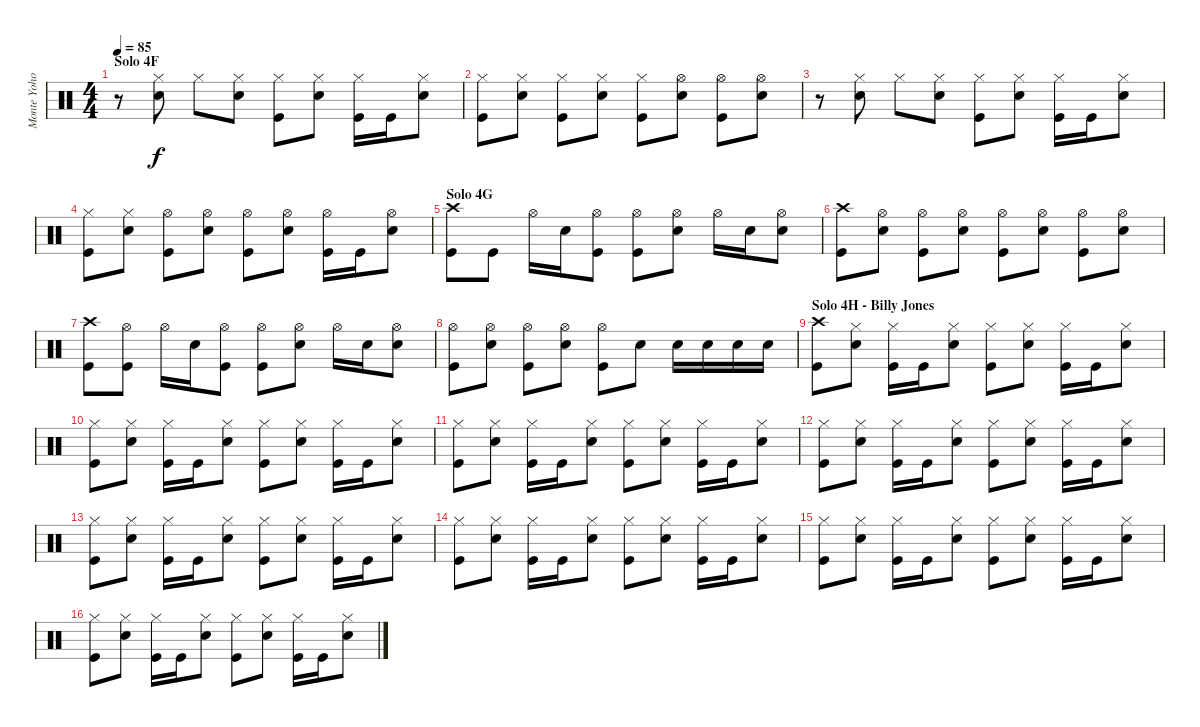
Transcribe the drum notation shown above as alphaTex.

\track ("Monte Yoho - Drums" "Monte Yoho") {instrument percussion}
\staff {score}
\articulation defaults
\ts (4 4)
\section ("" "Solo 4F")
\tempo 85
\clef neutral
\ks c
r.8{dy f} ("Hi-Hat (closed)" "Snare (hit) 2").8 "Hi-Hat (closed)".8 ("Hi-Hat (closed)" "Snare (hit) 2").8 ("Hi-Hat (closed)" "Kick (hit)").8 ("Hi-Hat (closed)" "Snare (hit) 2").8 ("Hi-Hat (closed)" "Kick (hit)").16 "Kick (hit)".16 ("Hi-Hat (closed)" "Snare (hit) 2").8 |
("Hi-Hat (closed)" "Kick (hit)").8 ("Hi-Hat (closed)" "Snare (hit) 2").8 ("Hi-Hat (closed)" "Kick (hit)").8 ("Hi-Hat (closed)" "Snare (hit) 2").8 ("Hi-Hat (closed)" "Kick (hit)").8 ("Hi-Hat (open)" "Snare (hit) 2").8 ("Hi-Hat (open)" "Kick (hit)").8 ("Hi-Hat (open)" "Snare (hit) 2").8 |
r.8 ("Hi-Hat (closed)" "Snare (hit) 2").8 "Hi-Hat (closed)".8 ("Hi-Hat (closed)" "Snare (hit) 2").8 ("Hi-Hat (closed)" "Kick (hit)").8 ("Hi-Hat (closed)" "Snare (hit) 2").8 ("Hi-Hat (closed)" "Kick (hit)").16 "Kick (hit)".16 ("Hi-Hat (closed)" "Snare (hit) 2").8 |
("Hi-Hat (closed)" "Kick (hit)").8 ("Hi-Hat (closed)" "Snare (hit) 2").8 ("Hi-Hat (open)" "Kick (hit)").8 ("Hi-Hat (open)" "Snare (hit) 2").8 ("Hi-Hat (open)" "Kick (hit)").8 ("Hi-Hat (open)" "Snare (hit) 2").8 ("Hi-Hat (open)" "Kick (hit)").16 "Kick (hit)".16 ("Hi-Hat (open)" "Snare (hit) 2").8 |
\section ("" "Solo 4G")
("Crash high (hit)" "Kick (hit)").8 "Kick (hit)".8 "Hi-Hat (open)".16 "Snare (hit) 2".16 ("Hi-Hat (open)" "Kick (hit)").8 ("Hi-Hat (open)" "Kick (hit)").8 ("Hi-Hat (open)" "Snare (hit) 2").8 "Hi-Hat (open)".16 "Snare (hit) 2".16 ("Hi-Hat (open)" "Snare (hit) 2").8 |
("Crash high (hit)" "Kick (hit)").8 ("Hi-Hat (open)" "Snare (hit) 2").8 ("Hi-Hat (open)" "Kick (hit)").8 ("Hi-Hat (open)" "Snare (hit) 2").8 ("Hi-Hat (open)" "Kick (hit)").8 ("Hi-Hat (open)" "Snare (hit) 2").8 ("Hi-Hat (open)" "Kick (hit)").8 ("Hi-Hat (open)" "Snare (hit) 2").8 |
("Crash high (hit)" "Kick (hit)").8 ("Hi-Hat (open)" "Kick (hit)").8 "Hi-Hat (open)".16 "Snare (hit) 2".16 ("Hi-Hat (open)" "Kick (hit)").8 ("Hi-Hat (open)" "Kick (hit)").8 ("Hi-Hat (open)" "Snare (hit) 2").8 "Hi-Hat (open)".16 "Snare (hit) 2".16 ("Hi-Hat (open)" "Snare (hit) 2").8 |
("Hi-Hat (open)" "Kick (hit)").8 ("Hi-Hat (open)" "Snare (hit) 2").8 ("Hi-Hat (open)" "Kick (hit)").8 ("Hi-Hat (open)" "Snare (hit) 2").8 ("Hi-Hat (open)" "Kick (hit)").8 "Snare (hit) 2".8 "Snare (hit) 2".16 "Snare (hit) 2".16 "Snare (hit) 2".16 "Snare (hit) 2".16 |
\section ("" "Solo 4H - Billy Jones")
("Crash high (hit)" "Kick (hit)").8 ("Hi-Hat (closed)" "Snare (hit) 2").8 ("Hi-Hat (closed)" "Kick (hit)").16 "Kick (hit)".16 ("Hi-Hat (closed)" "Snare (hit) 2").8 ("Hi-Hat (closed)" "Kick (hit)").8 ("Hi-Hat (closed)" "Snare (hit) 2").8 ("Hi-Hat (closed)" "Kick (hit)").16 "Kick (hit)".16 ("Hi-Hat (closed)" "Snare (hit) 2").8 |
("Hi-Hat (closed)" "Kick (hit)").8 ("Hi-Hat (closed)" "Snare (hit) 2").8 ("Hi-Hat (closed)" "Kick (hit)").16 "Kick (hit)".16 ("Hi-Hat (closed)" "Snare (hit) 2").8 ("Hi-Hat (closed)" "Kick (hit)").8 ("Hi-Hat (closed)" "Snare (hit) 2").8 ("Hi-Hat (closed)" "Kick (hit)").16 "Kick (hit)".16 ("Hi-Hat (closed)" "Snare (hit) 2").8 |
("Hi-Hat (closed)" "Kick (hit)").8 ("Hi-Hat (closed)" "Snare (hit) 2").8 ("Hi-Hat (closed)" "Kick (hit)").16 "Kick (hit)".16 ("Hi-Hat (closed)" "Snare (hit) 2").8 ("Hi-Hat (closed)" "Kick (hit)").8 ("Hi-Hat (closed)" "Snare (hit) 2").8 ("Hi-Hat (closed)" "Kick (hit)").16 "Kick (hit)".16 ("Hi-Hat (closed)" "Snare (hit) 2").8 |
("Hi-Hat (closed)" "Kick (hit)").8 ("Hi-Hat (closed)" "Snare (hit) 2").8 ("Hi-Hat (closed)" "Kick (hit)").16 "Kick (hit)".16 ("Hi-Hat (closed)" "Snare (hit) 2").8 ("Hi-Hat (closed)" "Kick (hit)").8 ("Hi-Hat (closed)" "Snare (hit) 2").8 ("Hi-Hat (closed)" "Kick (hit)").16 "Kick (hit)".16 ("Hi-Hat (closed)" "Snare (hit) 2").8 |
("Hi-Hat (closed)" "Kick (hit)").8 ("Hi-Hat (closed)" "Snare (hit) 2").8 ("Hi-Hat (closed)" "Kick (hit)").16 "Kick (hit)".16 ("Hi-Hat (closed)" "Snare (hit) 2").8 ("Hi-Hat (closed)" "Kick (hit)").8 ("Hi-Hat (closed)" "Snare (hit) 2").8 ("Hi-Hat (closed)" "Kick (hit)").16 "Kick (hit)".16 ("Hi-Hat (closed)" "Snare (hit) 2").8 |
("Hi-Hat (closed)" "Kick (hit)").8 ("Hi-Hat (closed)" "Snare (hit) 2").8 ("Hi-Hat (closed)" "Kick (hit)").16 "Kick (hit)".16 ("Hi-Hat (closed)" "Snare (hit) 2").8 ("Hi-Hat (closed)" "Kick (hit)").8 ("Hi-Hat (closed)" "Snare (hit) 2").8 ("Hi-Hat (closed)" "Kick (hit)").16 "Kick (hit)".16 ("Hi-Hat (closed)" "Snare (hit) 2").8 |
("Hi-Hat (closed)" "Kick (hit)").8 ("Hi-Hat (closed)" "Snare (hit) 2").8 ("Hi-Hat (closed)" "Kick (hit)").16 "Kick (hit)".16 ("Hi-Hat (closed)" "Snare (hit) 2").8 ("Hi-Hat (closed)" "Kick (hit)").8 ("Hi-Hat (closed)" "Snare (hit) 2").8 ("Hi-Hat (closed)" "Kick (hit)").16 "Kick (hit)".16 ("Hi-Hat (closed)" "Snare (hit) 2").8 |
("Hi-Hat (closed)" "Kick (hit)").8 ("Hi-Hat (closed)" "Snare (hit) 2").8 ("Hi-Hat (closed)" "Kick (hit)").16 "Kick (hit)".16 ("Hi-Hat (closed)" "Snare (hit) 2").8 ("Hi-Hat (closed)" "Kick (hit)").8 ("Hi-Hat (closed)" "Snare (hit) 2").8 ("Hi-Hat (closed)" "Kick (hit)").16 "Kick (hit)".16 ("Hi-Hat (closed)" "Snare (hit) 2").8
